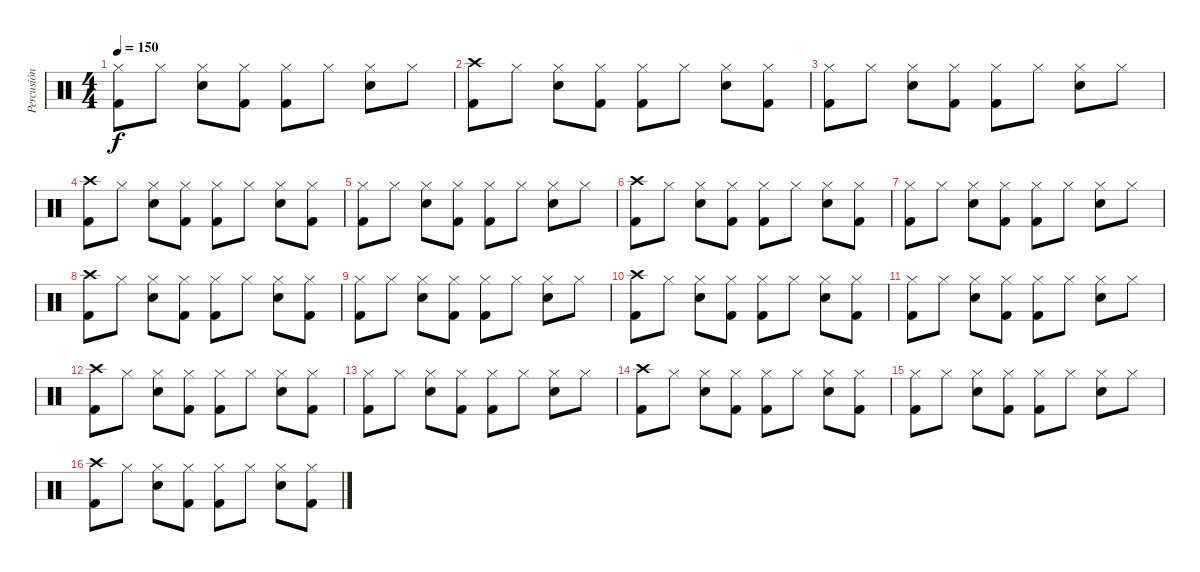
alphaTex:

\track ("Percusión" "Percusión") {instrument percussion}
\staff {score}
\articulation defaults
\ts (4 4)
\tempo 150
\clef neutral
\ks c
("Kick (hit) 2" "Hi-Hat (closed)").8{dy f} "Hi-Hat (closed)".8 ("Hi-Hat (closed)" "Electric Snare (hit)").8 ("Kick (hit) 2" "Hi-Hat (closed)").8 ("Kick (hit) 2" "Hi-Hat (closed)").8 "Hi-Hat (closed)".8 ("Hi-Hat (closed)" "Electric Snare (hit)").8 "Hi-Hat (closed)".8 |
("Kick (hit) 2" "Crash high (hit)").8 "Hi-Hat (closed)".8 ("Hi-Hat (closed)" "Electric Snare (hit)").8 ("Kick (hit) 2" "Hi-Hat (closed)").8 ("Kick (hit) 2" "Hi-Hat (closed)").8 "Hi-Hat (closed)".8 ("Hi-Hat (closed)" "Electric Snare (hit)").8 ("Kick (hit) 2" "Hi-Hat (closed)").8 |
("Kick (hit) 2" "Hi-Hat (closed)").8 "Hi-Hat (closed)".8 ("Hi-Hat (closed)" "Electric Snare (hit)").8 ("Kick (hit) 2" "Hi-Hat (closed)").8 ("Kick (hit) 2" "Hi-Hat (closed)").8 "Hi-Hat (closed)".8 ("Hi-Hat (closed)" "Electric Snare (hit)").8 "Hi-Hat (closed)".8 |
("Kick (hit) 2" "Crash high (hit)").8 "Hi-Hat (closed)".8 ("Hi-Hat (closed)" "Electric Snare (hit)").8 ("Kick (hit) 2" "Hi-Hat (closed)").8 ("Kick (hit) 2" "Hi-Hat (closed)").8 "Hi-Hat (closed)".8 ("Hi-Hat (closed)" "Electric Snare (hit)").8 ("Kick (hit) 2" "Hi-Hat (closed)").8 |
("Kick (hit) 2" "Hi-Hat (closed)").8 "Hi-Hat (closed)".8 ("Hi-Hat (closed)" "Electric Snare (hit)").8 ("Kick (hit) 2" "Hi-Hat (closed)").8 ("Kick (hit) 2" "Hi-Hat (closed)").8 "Hi-Hat (closed)".8 ("Hi-Hat (closed)" "Electric Snare (hit)").8 "Hi-Hat (closed)".8 |
("Kick (hit) 2" "Crash high (hit)").8 "Hi-Hat (closed)".8 ("Hi-Hat (closed)" "Electric Snare (hit)").8 ("Kick (hit) 2" "Hi-Hat (closed)").8 ("Kick (hit) 2" "Hi-Hat (closed)").8 "Hi-Hat (closed)".8 ("Hi-Hat (closed)" "Electric Snare (hit)").8 ("Kick (hit) 2" "Hi-Hat (closed)").8 |
("Kick (hit) 2" "Hi-Hat (closed)").8 "Hi-Hat (closed)".8 ("Hi-Hat (closed)" "Electric Snare (hit)").8 ("Kick (hit) 2" "Hi-Hat (closed)").8 ("Kick (hit) 2" "Hi-Hat (closed)").8 "Hi-Hat (closed)".8 ("Hi-Hat (closed)" "Electric Snare (hit)").8 "Hi-Hat (closed)".8 |
("Kick (hit) 2" "Crash high (hit)").8 "Hi-Hat (closed)".8 ("Hi-Hat (closed)" "Electric Snare (hit)").8 ("Kick (hit) 2" "Hi-Hat (closed)").8 ("Kick (hit) 2" "Hi-Hat (closed)").8 "Hi-Hat (closed)".8 ("Hi-Hat (closed)" "Electric Snare (hit)").8 ("Kick (hit) 2" "Hi-Hat (closed)").8 |
("Kick (hit) 2" "Hi-Hat (closed)").8 "Hi-Hat (closed)".8 ("Hi-Hat (closed)" "Electric Snare (hit)").8 ("Kick (hit) 2" "Hi-Hat (closed)").8 ("Kick (hit) 2" "Hi-Hat (closed)").8 "Hi-Hat (closed)".8 ("Hi-Hat (closed)" "Electric Snare (hit)").8 "Hi-Hat (closed)".8 |
("Kick (hit) 2" "Crash high (hit)").8 "Hi-Hat (closed)".8 ("Hi-Hat (closed)" "Electric Snare (hit)").8 ("Kick (hit) 2" "Hi-Hat (closed)").8 ("Kick (hit) 2" "Hi-Hat (closed)").8 "Hi-Hat (closed)".8 ("Hi-Hat (closed)" "Electric Snare (hit)").8 ("Kick (hit) 2" "Hi-Hat (closed)").8 |
("Kick (hit) 2" "Hi-Hat (closed)").8 "Hi-Hat (closed)".8 ("Hi-Hat (closed)" "Electric Snare (hit)").8 ("Kick (hit) 2" "Hi-Hat (closed)").8 ("Kick (hit) 2" "Hi-Hat (closed)").8 "Hi-Hat (closed)".8 ("Hi-Hat (closed)" "Electric Snare (hit)").8 "Hi-Hat (closed)".8 |
("Kick (hit) 2" "Crash high (hit)").8 "Hi-Hat (closed)".8 ("Hi-Hat (closed)" "Electric Snare (hit)").8 ("Kick (hit) 2" "Hi-Hat (closed)").8 ("Kick (hit) 2" "Hi-Hat (closed)").8 "Hi-Hat (closed)".8 ("Hi-Hat (closed)" "Electric Snare (hit)").8 ("Kick (hit) 2" "Hi-Hat (closed)").8 |
("Kick (hit) 2" "Hi-Hat (closed)").8 "Hi-Hat (closed)".8 ("Hi-Hat (closed)" "Electric Snare (hit)").8 ("Kick (hit) 2" "Hi-Hat (closed)").8 ("Kick (hit) 2" "Hi-Hat (closed)").8 "Hi-Hat (closed)".8 ("Hi-Hat (closed)" "Electric Snare (hit)").8 "Hi-Hat (closed)".8 |
("Kick (hit) 2" "Crash high (hit)").8 "Hi-Hat (closed)".8 ("Hi-Hat (closed)" "Electric Snare (hit)").8 ("Kick (hit) 2" "Hi-Hat (closed)").8 ("Kick (hit) 2" "Hi-Hat (closed)").8 "Hi-Hat (closed)".8 ("Hi-Hat (closed)" "Electric Snare (hit)").8 ("Kick (hit) 2" "Hi-Hat (closed)").8 |
("Kick (hit) 2" "Hi-Hat (closed)").8 "Hi-Hat (closed)".8 ("Hi-Hat (closed)" "Electric Snare (hit)").8 ("Kick (hit) 2" "Hi-Hat (closed)").8 ("Kick (hit) 2" "Hi-Hat (closed)").8 "Hi-Hat (closed)".8 ("Hi-Hat (closed)" "Electric Snare (hit)").8 "Hi-Hat (closed)".8 |
("Kick (hit) 2" "Crash high (hit)").8 "Hi-Hat (closed)".8 ("Hi-Hat (closed)" "Electric Snare (hit)").8 ("Kick (hit) 2" "Hi-Hat (closed)").8 ("Kick (hit) 2" "Hi-Hat (closed)").8 "Hi-Hat (closed)".8 ("Hi-Hat (closed)" "Electric Snare (hit)").8 ("Kick (hit) 2" "Hi-Hat (closed)").8
